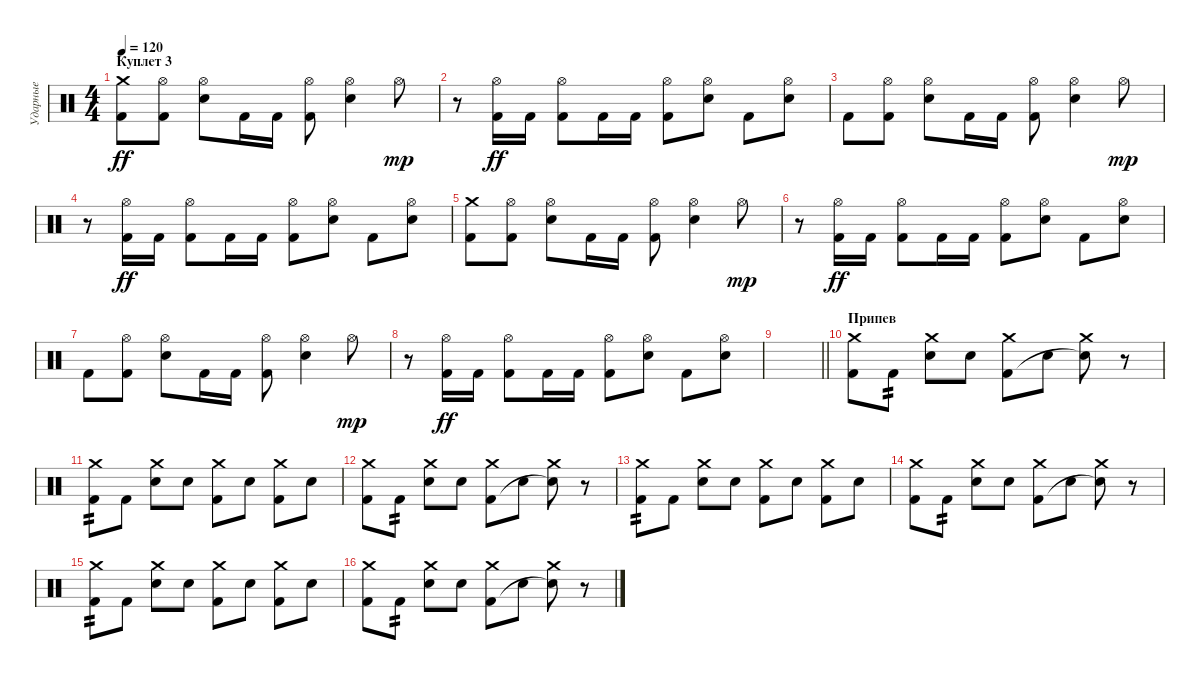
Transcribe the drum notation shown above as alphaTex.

\track ("Ударные" "Ударные") {instrument percussion}
\staff {score}
\articulation defaults
\ts (4 4)
\section ("" "Куплет 3")
\tempo 120
\clef neutral
\ks c
("Crash medium (hit)" "Kick (hit) 2").8{dy ff} ("Hi-Hat (open)" "Kick (hit) 2").8 ("Hi-Hat (open)" "Electric Snare (hit)").8 "Kick (hit) 2".16 "Kick (hit) 2".16 ("Hi-Hat (open)" "Kick (hit) 2").8 ("Hi-Hat (open)" "Electric Snare (hit)").4 "Hi-Hat (open)".8{dy mp} |
r.8 ("Hi-Hat (open)" "Kick (hit) 2").16{dy ff} "Kick (hit) 2".16 ("Hi-Hat (open)" "Kick (hit) 2").8 "Kick (hit) 2".16 "Kick (hit) 2".16 ("Hi-Hat (open)" "Kick (hit) 2").8 ("Hi-Hat (open)" "Electric Snare (hit)").8 "Kick (hit) 2".8 ("Hi-Hat (open)" "Electric Snare (hit)").8 |
"Kick (hit) 2".8 ("Hi-Hat (open)" "Kick (hit) 2").8 ("Hi-Hat (open)" "Electric Snare (hit)").8 "Kick (hit) 2".16 "Kick (hit) 2".16 ("Hi-Hat (open)" "Kick (hit) 2").8 ("Hi-Hat (open)" "Electric Snare (hit)").4 "Hi-Hat (open)".8{dy mp} |
r.8 ("Hi-Hat (open)" "Kick (hit) 2").16{dy ff} "Kick (hit) 2".16 ("Hi-Hat (open)" "Kick (hit) 2").8 "Kick (hit) 2".16 "Kick (hit) 2".16 ("Hi-Hat (open)" "Kick (hit) 2").8 ("Hi-Hat (open)" "Electric Snare (hit)").8 "Kick (hit) 2".8 ("Hi-Hat (open)" "Electric Snare (hit)").8 |
("Crash medium (hit)" "Kick (hit) 2").8 ("Hi-Hat (open)" "Kick (hit) 2").8 ("Hi-Hat (open)" "Electric Snare (hit)").8 "Kick (hit) 2".16 "Kick (hit) 2".16 ("Hi-Hat (open)" "Kick (hit) 2").8 ("Hi-Hat (open)" "Electric Snare (hit)").4 "Hi-Hat (open)".8{dy mp} |
r.8 ("Hi-Hat (open)" "Kick (hit) 2").16{dy ff} "Kick (hit) 2".16 ("Hi-Hat (open)" "Kick (hit) 2").8 "Kick (hit) 2".16 "Kick (hit) 2".16 ("Hi-Hat (open)" "Kick (hit) 2").8 ("Hi-Hat (open)" "Electric Snare (hit)").8 "Kick (hit) 2".8 ("Hi-Hat (open)" "Electric Snare (hit)").8 |
"Kick (hit) 2".8 ("Hi-Hat (open)" "Kick (hit) 2").8 ("Hi-Hat (open)" "Electric Snare (hit)").8 "Kick (hit) 2".16 "Kick (hit) 2".16 ("Hi-Hat (open)" "Kick (hit) 2").8 ("Hi-Hat (open)" "Electric Snare (hit)").4 "Hi-Hat (open)".8{dy mp} |
r.8 ("Hi-Hat (open)" "Kick (hit) 2").16{dy ff} "Kick (hit) 2".16 ("Hi-Hat (open)" "Kick (hit) 2").8 "Kick (hit) 2".16 "Kick (hit) 2".16 ("Hi-Hat (open)" "Kick (hit) 2").8 ("Hi-Hat (open)" "Electric Snare (hit)").8 "Kick (hit) 2".8 ("Hi-Hat (open)" "Electric Snare (hit)").8 |
\barLineRight lightlight
|
\section ("" "Припев")
("Crash medium (hit)" "Kick (hit) 2").8 "Kick (hit) 2".8{tp 2} ("Crash medium (hit)" "Electric Snare (hit)").8 "Electric Snare (hit)".8 ("Crash medium (hit)" "Kick (hit) 2").8 "Electric Snare (hit)".8 ("Crash medium (hit)" "Electric Snare (hit)"{t}).8 r.8 |
("Crash medium (hit)" "Kick (hit) 2").8{tp 2} "Kick (hit) 2".8 ("Crash medium (hit)" "Electric Snare (hit)").8 "Electric Snare (hit)".8 ("Crash medium (hit)" "Kick (hit) 2").8 "Electric Snare (hit)".8 ("Crash medium (hit)" "Kick (hit) 2").8 "Electric Snare (hit)".8 |
("Crash medium (hit)" "Kick (hit) 2").8 "Kick (hit) 2".8{tp 2} ("Crash medium (hit)" "Electric Snare (hit)").8 "Electric Snare (hit)".8 ("Crash medium (hit)" "Kick (hit) 2").8 "Electric Snare (hit)".8 ("Crash medium (hit)" "Electric Snare (hit)"{t}).8 r.8 |
("Crash medium (hit)" "Kick (hit) 2").8{tp 2} "Kick (hit) 2".8 ("Crash medium (hit)" "Electric Snare (hit)").8 "Electric Snare (hit)".8 ("Crash medium (hit)" "Kick (hit) 2").8 "Electric Snare (hit)".8 ("Crash medium (hit)" "Kick (hit) 2").8 "Electric Snare (hit)".8 |
("Crash medium (hit)" "Kick (hit) 2").8 "Kick (hit) 2".8{tp 2} ("Crash medium (hit)" "Electric Snare (hit)").8 "Electric Snare (hit)".8 ("Crash medium (hit)" "Kick (hit) 2").8 "Electric Snare (hit)".8 ("Crash medium (hit)" "Electric Snare (hit)"{t}).8 r.8 |
("Crash medium (hit)" "Kick (hit) 2").8{tp 2} "Kick (hit) 2".8 ("Crash medium (hit)" "Electric Snare (hit)").8 "Electric Snare (hit)".8 ("Crash medium (hit)" "Kick (hit) 2").8 "Electric Snare (hit)".8 ("Crash medium (hit)" "Kick (hit) 2").8 "Electric Snare (hit)".8 |
("Crash medium (hit)" "Kick (hit) 2").8 "Kick (hit) 2".8{tp 2} ("Crash medium (hit)" "Electric Snare (hit)").8 "Electric Snare (hit)".8 ("Crash medium (hit)" "Kick (hit) 2").8 "Electric Snare (hit)".8 ("Crash medium (hit)" "Electric Snare (hit)"{t}).8 r.8
